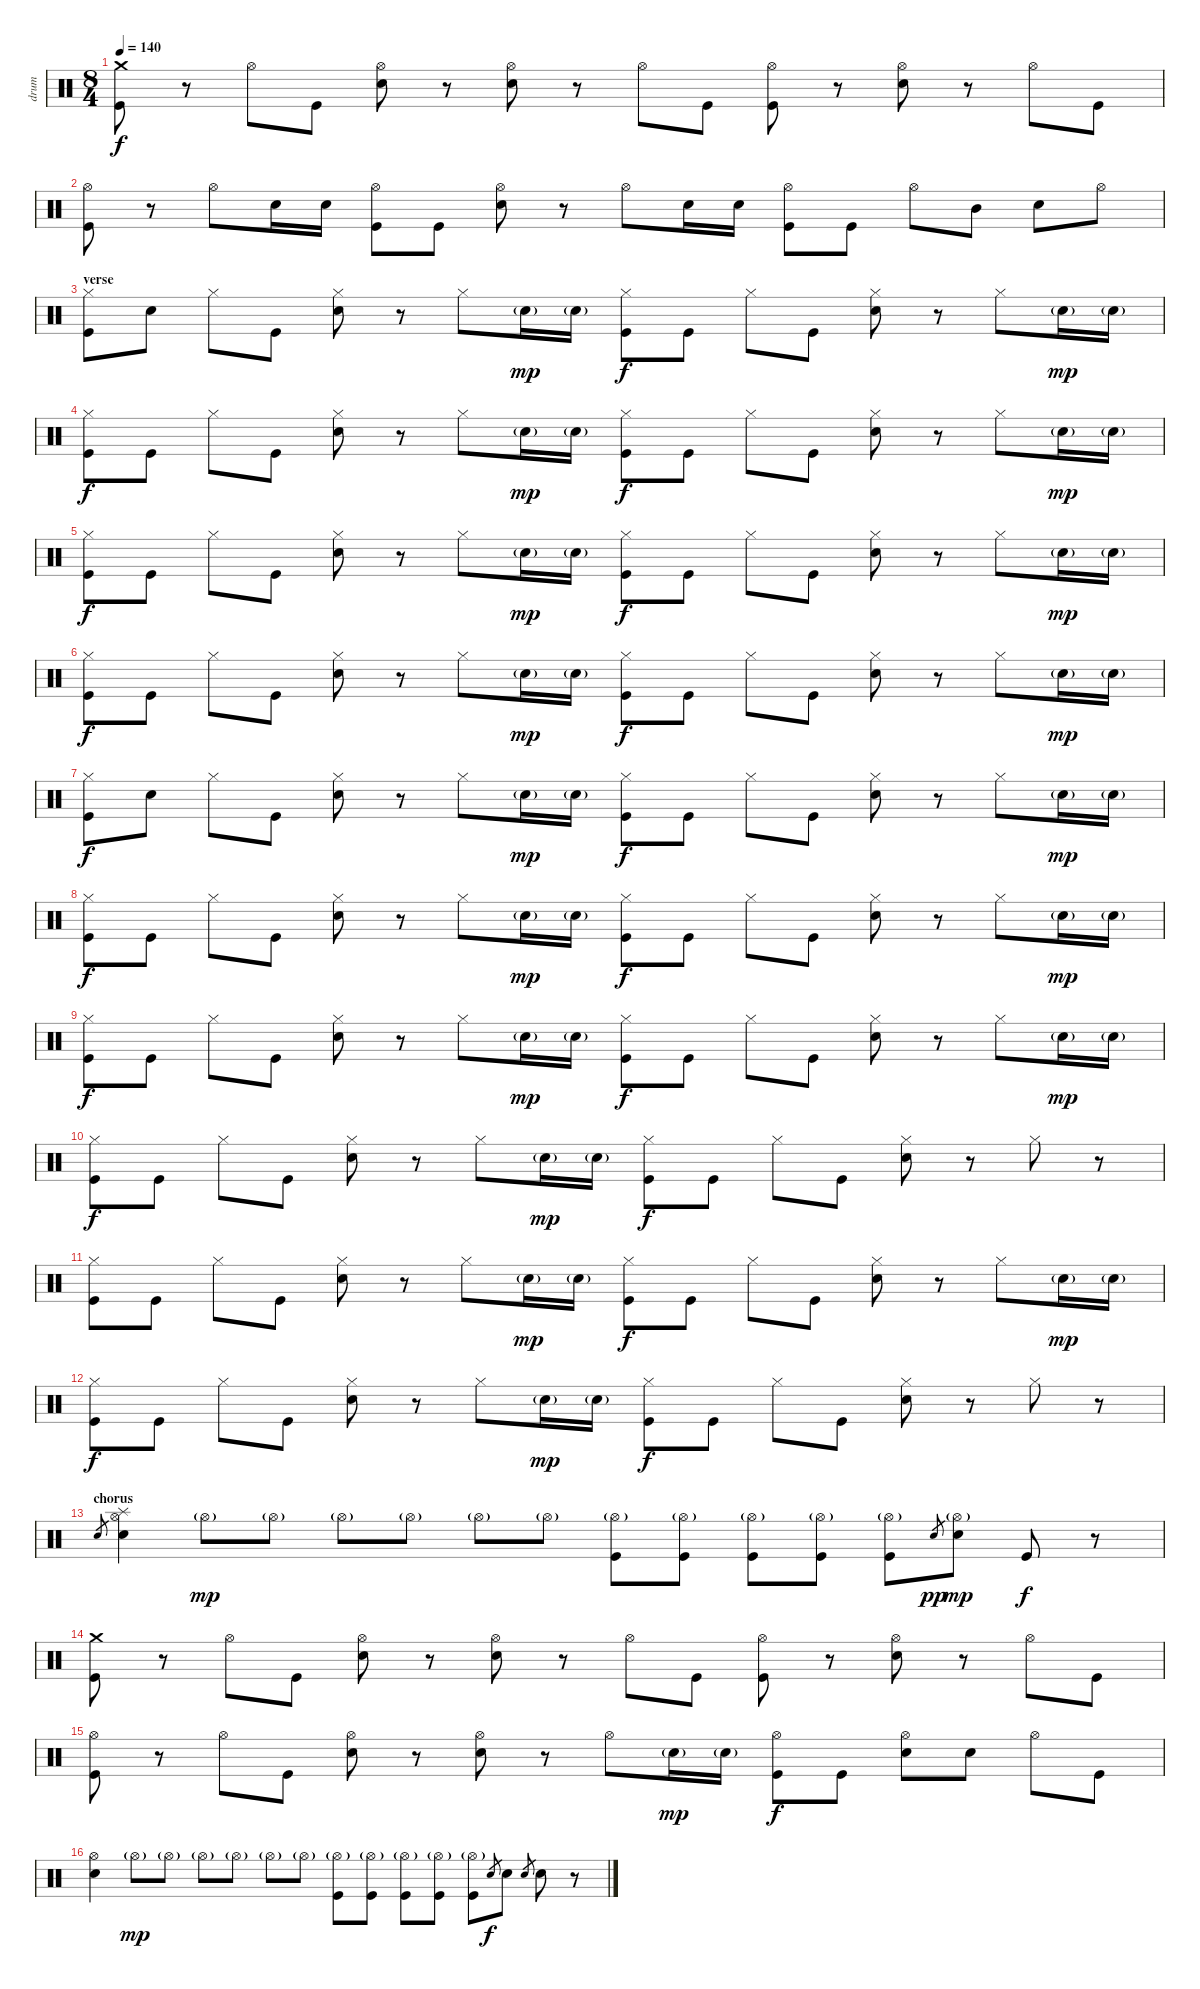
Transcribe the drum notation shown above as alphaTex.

\track ("drum" "drum") {instrument percussion}
\staff {score}
\articulation defaults
\ts (8 4)
\tempo 140
\clef neutral
\ks c
("Crash medium (hit)" "Kick (hit)").8{dy f} r.8 "Hi-Hat (open)".8 "Kick (hit)".8 ("Hi-Hat (open)" "Electric Snare (hit)").8 r.8 ("Hi-Hat (open)" "Electric Snare (hit)").8 r.8 "Hi-Hat (open)".8 "Kick (hit)".8 ("Hi-Hat (open)" "Kick (hit)").8 r.8 ("Hi-Hat (open)" "Electric Snare (hit)").8 r.8 "Hi-Hat (open)".8 "Kick (hit)".8 |
("Hi-Hat (open)" "Kick (hit)").8 r.8 "Hi-Hat (open)".8 "Electric Snare (hit)".16 "Electric Snare (hit)".16 ("Hi-Hat (open)" "Kick (hit)").8 "Kick (hit)".8 ("Hi-Hat (open)" "Electric Snare (hit)").8 r.8 "Hi-Hat (open)".8 "Electric Snare (hit)".16 "Electric Snare (hit)".16 ("Hi-Hat (open)" "Kick (hit)").8 "Kick (hit)".8 "Hi-Hat (open)".8 "Mid Tom (hit)".8 "Electric Snare (hit)".8 "Hi-Hat (open)".8 |
\section ("" "verse")
("Hi-Hat (closed)" "Kick (hit)").8{volume 16} "Electric Snare (hit)".8 "Hi-Hat (closed)".8 "Kick (hit)".8 ("Hi-Hat (closed)" "Electric Snare (hit)").8 r.8 "Hi-Hat (closed)".8 "Electric Snare (hit)"{g}.16{dy mp volume 11} "Electric Snare (hit)"{g}.16 ("Hi-Hat (closed)" "Kick (hit)").8{dy f volume 16} "Kick (hit)".8 "Hi-Hat (closed)".8 "Kick (hit)".8 ("Hi-Hat (closed)" "Electric Snare (hit)").8 r.8 "Hi-Hat (closed)".8 "Electric Snare (hit)"{g}.16{dy mp volume 11} "Electric Snare (hit)"{g}.16 |
("Hi-Hat (closed)" "Kick (hit)").8{dy f volume 16} "Kick (hit)".8 "Hi-Hat (closed)".8 "Kick (hit)".8 ("Hi-Hat (closed)" "Electric Snare (hit)").8 r.8 "Hi-Hat (closed)".8 "Electric Snare (hit)"{g}.16{dy mp volume 11} "Electric Snare (hit)"{g}.16 ("Hi-Hat (closed)" "Kick (hit)").8{dy f volume 16} "Kick (hit)".8 "Hi-Hat (closed)".8 "Kick (hit)".8 ("Hi-Hat (closed)" "Electric Snare (hit)").8 r.8 "Hi-Hat (closed)".8 "Electric Snare (hit)"{g}.16{dy mp volume 11} "Electric Snare (hit)"{g}.16 |
("Hi-Hat (closed)" "Kick (hit)").8{dy f volume 16} "Kick (hit)".8 "Hi-Hat (closed)".8 "Kick (hit)".8 ("Hi-Hat (closed)" "Electric Snare (hit)").8 r.8 "Hi-Hat (closed)".8 "Electric Snare (hit)"{g}.16{dy mp volume 11} "Electric Snare (hit)"{g}.16 ("Hi-Hat (closed)" "Kick (hit)").8{dy f volume 16} "Kick (hit)".8 "Hi-Hat (closed)".8 "Kick (hit)".8 ("Hi-Hat (closed)" "Electric Snare (hit)").8 r.8 "Hi-Hat (closed)".8 "Electric Snare (hit)"{g}.16{dy mp volume 11} "Electric Snare (hit)"{g}.16 |
("Hi-Hat (closed)" "Kick (hit)").8{dy f volume 16} "Kick (hit)".8 "Hi-Hat (closed)".8 "Kick (hit)".8 ("Hi-Hat (closed)" "Electric Snare (hit)").8 r.8 "Hi-Hat (closed)".8 "Electric Snare (hit)"{g}.16{dy mp volume 11} "Electric Snare (hit)"{g}.16 ("Hi-Hat (closed)" "Kick (hit)").8{dy f volume 16} "Kick (hit)".8 "Hi-Hat (closed)".8 "Kick (hit)".8 ("Hi-Hat (closed)" "Electric Snare (hit)").8 r.8 "Hi-Hat (closed)".8 "Electric Snare (hit)"{g}.16{dy mp volume 11} "Electric Snare (hit)"{g}.16 |
("Hi-Hat (closed)" "Kick (hit)").8{dy f volume 16} "Electric Snare (hit)".8 "Hi-Hat (closed)".8 "Kick (hit)".8 ("Hi-Hat (closed)" "Electric Snare (hit)").8 r.8 "Hi-Hat (closed)".8 "Electric Snare (hit)"{g}.16{dy mp volume 11} "Electric Snare (hit)"{g}.16 ("Hi-Hat (closed)" "Kick (hit)").8{dy f volume 16} "Kick (hit)".8 "Hi-Hat (closed)".8 "Kick (hit)".8 ("Hi-Hat (closed)" "Electric Snare (hit)").8 r.8 "Hi-Hat (closed)".8 "Electric Snare (hit)"{g}.16{dy mp volume 11} "Electric Snare (hit)"{g}.16 |
("Hi-Hat (closed)" "Kick (hit)").8{dy f volume 16} "Kick (hit)".8 "Hi-Hat (closed)".8 "Kick (hit)".8 ("Hi-Hat (closed)" "Electric Snare (hit)").8 r.8 "Hi-Hat (closed)".8 "Electric Snare (hit)"{g}.16{dy mp volume 11} "Electric Snare (hit)"{g}.16 ("Hi-Hat (closed)" "Kick (hit)").8{dy f volume 16} "Kick (hit)".8 "Hi-Hat (closed)".8 "Kick (hit)".8 ("Hi-Hat (closed)" "Electric Snare (hit)").8 r.8 "Hi-Hat (closed)".8 "Electric Snare (hit)"{g}.16{dy mp volume 11} "Electric Snare (hit)"{g}.16 |
("Hi-Hat (closed)" "Kick (hit)").8{dy f volume 16} "Kick (hit)".8 "Hi-Hat (closed)".8 "Kick (hit)".8 ("Hi-Hat (closed)" "Electric Snare (hit)").8 r.8 "Hi-Hat (closed)".8 "Electric Snare (hit)"{g}.16{dy mp volume 11} "Electric Snare (hit)"{g}.16 ("Hi-Hat (closed)" "Kick (hit)").8{dy f volume 16} "Kick (hit)".8 "Hi-Hat (closed)".8 "Kick (hit)".8 ("Hi-Hat (closed)" "Electric Snare (hit)").8 r.8 "Hi-Hat (closed)".8 "Electric Snare (hit)"{g}.16{dy mp volume 11} "Electric Snare (hit)"{g}.16 |
("Hi-Hat (closed)" "Kick (hit)").8{dy f volume 16} "Kick (hit)".8 "Hi-Hat (closed)".8 "Kick (hit)".8 ("Hi-Hat (closed)" "Electric Snare (hit)").8 r.8 "Hi-Hat (closed)".8 "Electric Snare (hit)"{g}.16{dy mp volume 11} "Electric Snare (hit)"{g}.16 ("Hi-Hat (closed)" "Kick (hit)").8{dy f volume 16} "Kick (hit)".8 "Hi-Hat (closed)".8 "Kick (hit)".8 ("Hi-Hat (closed)" "Electric Snare (hit)").8 r.8 "Hi-Hat (closed)".8 r.8 |
("Hi-Hat (closed)" "Kick (hit)").8{volume 16} "Kick (hit)".8 "Hi-Hat (closed)".8 "Kick (hit)".8 ("Hi-Hat (closed)" "Electric Snare (hit)").8 r.8 "Hi-Hat (closed)".8 "Electric Snare (hit)"{g}.16{dy mp volume 11} "Electric Snare (hit)"{g}.16 ("Hi-Hat (closed)" "Kick (hit)").8{dy f volume 16} "Kick (hit)".8 "Hi-Hat (closed)".8 "Kick (hit)".8 ("Hi-Hat (closed)" "Electric Snare (hit)").8 r.8 "Hi-Hat (closed)".8 "Electric Snare (hit)"{g}.16{dy mp volume 11} "Electric Snare (hit)"{g}.16 |
("Hi-Hat (closed)" "Kick (hit)").8{dy f volume 16} "Kick (hit)".8 "Hi-Hat (closed)".8 "Kick (hit)".8 ("Hi-Hat (closed)" "Electric Snare (hit)").8 r.8 "Hi-Hat (closed)".8 "Electric Snare (hit)"{g}.16{dy mp volume 11} "Electric Snare (hit)"{g}.16 ("Hi-Hat (closed)" "Kick (hit)").8{dy f volume 16} "Kick (hit)".8 "Hi-Hat (closed)".8 "Kick (hit)".8 ("Hi-Hat (closed)" "Electric Snare (hit)").8 r.8 "Hi-Hat (closed)".8 r.8 |
\section ("" "chorus")
"Electric Snare (hit)".8{gr} ("Splash (hit)" "Hi-Hat (open)" "Electric Snare (hit)").4 "Hi-Hat (open)"{g}.8{dy mp} "Hi-Hat (open)"{g}.8 "Hi-Hat (open)"{g}.8 "Hi-Hat (open)"{g}.8 "Hi-Hat (open)"{g}.8 "Hi-Hat (open)"{g}.8 ("Hi-Hat (open)"{g} "Kick (hit)").8 ("Hi-Hat (open)"{g} "Kick (hit)").8 ("Hi-Hat (open)"{g} "Kick (hit)").8 ("Hi-Hat (open)"{g} "Kick (hit)").8 ("Hi-Hat (open)"{g} "Kick (hit)").8 "Electric Snare (hit)".8{gr dy pp} ("Hi-Hat (open)"{g} "Electric Snare (hit)").8{dy mp} "Kick (hit)".8{dy f} r.8 |
("Crash medium (hit)" "Kick (hit)").8 r.8 "Hi-Hat (open)".8 "Kick (hit)".8 ("Hi-Hat (open)" "Electric Snare (hit)").8 r.8 ("Hi-Hat (open)" "Electric Snare (hit)").8 r.8 "Hi-Hat (open)".8 "Kick (hit)".8 ("Hi-Hat (open)" "Kick (hit)").8 r.8 ("Hi-Hat (open)" "Electric Snare (hit)").8 r.8 "Hi-Hat (open)".8 "Kick (hit)".8 |
("Hi-Hat (open)" "Kick (hit)").8 r.8 "Hi-Hat (open)".8 "Kick (hit)".8 ("Hi-Hat (open)" "Electric Snare (hit)").8 r.8 ("Hi-Hat (open)" "Electric Snare (hit)").8 r.8 "Hi-Hat (open)".8 "Electric Snare (hit)"{g}.16{dy mp} "Electric Snare (hit)"{g}.16 ("Hi-Hat (open)" "Kick (hit)").8{dy f} "Kick (hit)".8 ("Hi-Hat (open)" "Electric Snare (hit)").8 "Electric Snare (hit)".8 "Hi-Hat (open)".8 "Kick (hit)".8 |
("Hi-Hat (open)" "Electric Snare (hit)").4 "Hi-Hat (open)"{g}.8{dy mp} "Hi-Hat (open)"{g}.8 "Hi-Hat (open)"{g}.8 "Hi-Hat (open)"{g}.8 "Hi-Hat (open)"{g}.8 "Hi-Hat (open)"{g}.8 ("Hi-Hat (open)"{g} "Kick (hit)").8 ("Hi-Hat (open)"{g} "Kick (hit)").8 ("Hi-Hat (open)"{g} "Kick (hit)").8 ("Hi-Hat (open)"{g} "Kick (hit)").8 ("Hi-Hat (open)"{g} "Kick (hit)").8 "Electric Snare (hit)".8{gr dy f} "Electric Snare (hit)".8 "Electric Snare (hit)".8{gr} "Electric Snare (hit)".8 r.8
